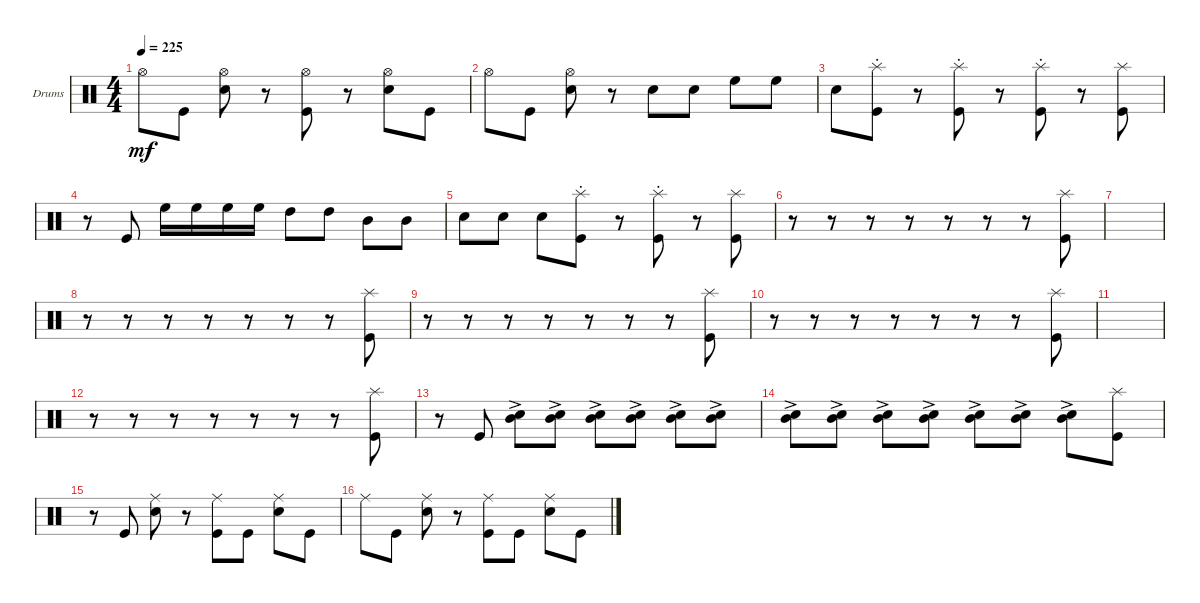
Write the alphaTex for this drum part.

\bracketExtendMode groupsimilarinstruments
\firstSystemTrackNameOrientation horizontal
\otherSystemsTrackNameOrientation horizontal
\track ("Drumkit" "Drums") {instrument percussion}
\staff {score}
\articulation defaults
\ts (4 4)
\tempo 225
\clef neutral
\ks c "Hi-Hat (open)".8{dy mf} "Kick (hit)".8
("Snare (hit) 2" "Hi-Hat (open)").8 r.8 ("Kick (hit)" "Hi-Hat (open)").8 r.8 ("Snare (hit) 2" "Hi-Hat (open)").8 "Kick (hit)".8 |
"Hi-Hat (open)".8 "Kick (hit)".8 ("Snare (hit) 2" "Hi-Hat (open)").8 r.8 "Snare (hit) 2".8 "Snare (hit) 2".8 "High Floor Tom (hit)".8 "High Floor Tom (hit)".8 |
"Snare (hit) 2".8 ("Kick (hit)" "Splash (hit)"{st}).8 r.8 ("Kick (hit)" "Splash (hit)"{st}).8 r.8 ("Kick (hit)" "Splash (hit)"{st}).8 r.8 ("Kick (hit)" "Splash (hit)").8 |
r.8 "Kick (hit)".8 "High Floor Tom (hit)".16 "High Floor Tom (hit)".16 "High Floor Tom (hit)".16 "High Floor Tom (hit)".16 "High Tom (hit)".8 "High Tom (hit)".8 "Mid Tom (hit)".8 "Mid Tom (hit)".8 |
"Snare (hit) 2".8 "Snare (hit) 2".8 "Snare (hit) 2".8 ("Kick (hit)" "Splash (hit)"{st}).8 r.8 ("Kick (hit)" "Splash (hit)"{st}).8 r.8 ("Kick (hit)" "Splash (hit)").8 |
r.8 r.8 r.8 r.8 r.8 r.8 r.8 ("Kick (hit)" "Splash (hit)").8 |
|
r.8 r.8 r.8 r.8 r.8 r.8 r.8 ("Kick (hit)" "Splash (hit)").8 |
r.8 r.8 r.8 r.8 r.8 r.8 r.8 ("Kick (hit)" "Splash (hit)").8 |
r.8 r.8 r.8 r.8 r.8 r.8 r.8 ("Kick (hit)" "Splash (hit)").8 |
|
r.8 r.8 r.8 r.8 r.8 r.8 r.8 ("Kick (hit)" "Splash (hit)").8 |
r.8 "Kick (hit)".8 ("Snare (hit) 2"{ac} "Mid Tom (hit)"{ac}).8 ("Snare (hit) 2"{ac} "Mid Tom (hit)"{ac}).8 ("Snare (hit) 2"{ac} "Mid Tom (hit)"{ac}).8 ("Snare (hit) 2"{ac} "Mid Tom (hit)"{ac}).8 ("Snare (hit) 2"{ac} "Mid Tom (hit)"{ac}).8 ("Snare (hit) 2"{ac} "Mid Tom (hit)"{ac}).8 |
("Snare (hit) 2"{ac} "Mid Tom (hit)"{ac}).8 ("Snare (hit) 2"{ac} "Mid Tom (hit)"{ac}).8 ("Snare (hit) 2"{ac} "Mid Tom (hit)"{ac}).8 ("Snare (hit) 2"{ac} "Mid Tom (hit)"{ac}).8 ("Snare (hit) 2"{ac} "Mid Tom (hit)"{ac}).8 ("Snare (hit) 2"{ac} "Mid Tom (hit)"{ac}).8 ("Snare (hit) 2"{ac} "Mid Tom (hit)"{ac}).8 ("Kick (hit)" "Splash (hit)").8 |
r.8 "Kick (hit)".8 ("Snare (hit) 2" "Ride (middle)").8 r.8 ("Kick (hit)" "Ride (middle)").8 "Kick (hit)".8 ("Snare (hit) 2" "Ride (middle)").8 "Kick (hit)".8 |
"Ride (middle)".8 "Kick (hit)".8 ("Snare (hit) 2" "Ride (middle)").8 r.8 ("Kick (hit)" "Ride (middle)").8 "Kick (hit)".8 ("Snare (hit) 2" "Ride (middle)").8 "Kick (hit)".8
